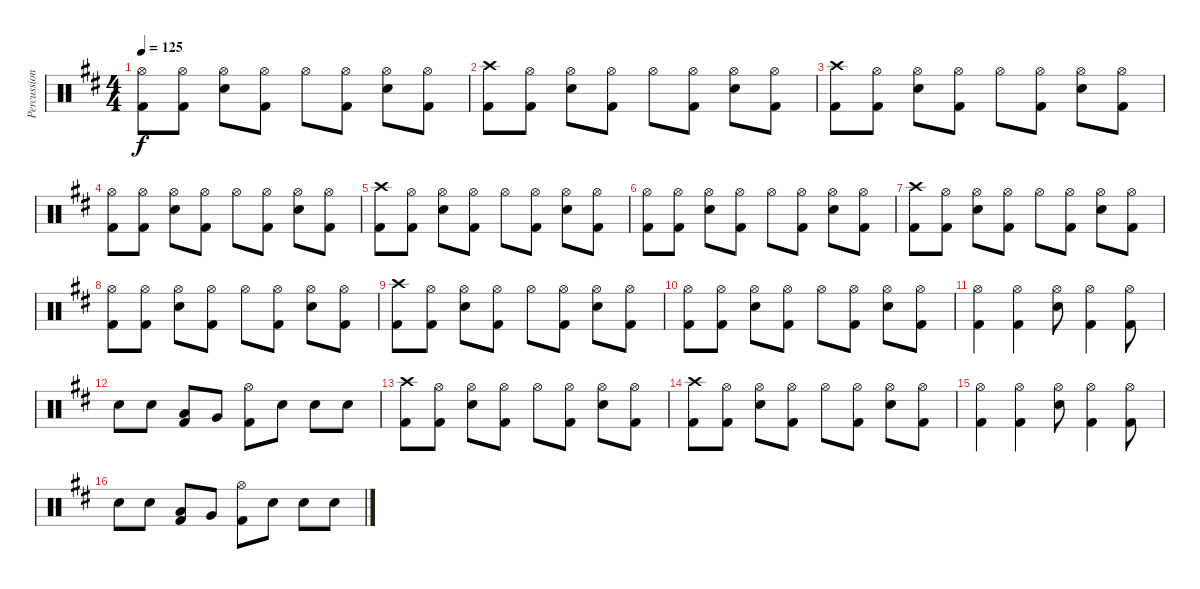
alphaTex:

\track ("Percussion" "Percussion") {instrument percussion}
\staff {score}
\articulation defaults
\ts (4 4)
\tempo 125
\clef neutral
\ks d
("Hi-Hat (open)" "Kick (hit) 2").8{dy f} ("Hi-Hat (open)" "Kick (hit) 2").8 ("Hi-Hat (open)" "Electric Snare (hit)").8 ("Hi-Hat (open)" "Kick (hit) 2").8 "Hi-Hat (open)".8 ("Hi-Hat (open)" "Kick (hit) 2").8 ("Hi-Hat (open)" "Electric Snare (hit)").8 ("Hi-Hat (open)" "Kick (hit) 2").8 |
("Crash high (hit)" "Kick (hit) 2").8 ("Hi-Hat (open)" "Kick (hit) 2").8 ("Hi-Hat (open)" "Electric Snare (hit)").8 ("Hi-Hat (open)" "Kick (hit) 2").8 "Hi-Hat (open)".8 ("Hi-Hat (open)" "Kick (hit) 2").8 ("Hi-Hat (open)" "Electric Snare (hit)").8 ("Hi-Hat (open)" "Kick (hit) 2").8 |
("Crash high (hit)" "Kick (hit) 2").8 ("Hi-Hat (open)" "Kick (hit) 2").8 ("Hi-Hat (open)" "Electric Snare (hit)").8 ("Hi-Hat (open)" "Kick (hit) 2").8 "Hi-Hat (open)".8 ("Hi-Hat (open)" "Kick (hit) 2").8 ("Hi-Hat (open)" "Electric Snare (hit)").8 ("Hi-Hat (open)" "Kick (hit) 2").8 |
("Hi-Hat (open)" "Kick (hit) 2").8 ("Hi-Hat (open)" "Kick (hit) 2").8 ("Hi-Hat (open)" "Electric Snare (hit)").8 ("Hi-Hat (open)" "Kick (hit) 2").8 "Hi-Hat (open)".8 ("Hi-Hat (open)" "Kick (hit) 2").8 ("Hi-Hat (open)" "Electric Snare (hit)").8 ("Hi-Hat (open)" "Kick (hit) 2").8 |
("Crash high (hit)" "Kick (hit) 2").8 ("Hi-Hat (open)" "Kick (hit) 2").8 ("Hi-Hat (open)" "Electric Snare (hit)").8 ("Hi-Hat (open)" "Kick (hit) 2").8 "Hi-Hat (open)".8 ("Hi-Hat (open)" "Kick (hit) 2").8 ("Hi-Hat (open)" "Electric Snare (hit)").8 ("Hi-Hat (open)" "Kick (hit) 2").8 |
("Hi-Hat (open)" "Kick (hit) 2").8 ("Hi-Hat (open)" "Kick (hit) 2").8 ("Hi-Hat (open)" "Electric Snare (hit)").8 ("Hi-Hat (open)" "Kick (hit) 2").8 "Hi-Hat (open)".8 ("Hi-Hat (open)" "Kick (hit) 2").8 ("Hi-Hat (open)" "Electric Snare (hit)").8 ("Hi-Hat (open)" "Kick (hit) 2").8 |
("Crash high (hit)" "Kick (hit) 2").8 ("Hi-Hat (open)" "Kick (hit) 2").8 ("Hi-Hat (open)" "Electric Snare (hit)").8 ("Hi-Hat (open)" "Kick (hit) 2").8 "Hi-Hat (open)".8 ("Hi-Hat (open)" "Kick (hit) 2").8 ("Hi-Hat (open)" "Electric Snare (hit)").8 ("Hi-Hat (open)" "Kick (hit) 2").8 |
("Hi-Hat (open)" "Kick (hit) 2").8 ("Hi-Hat (open)" "Kick (hit) 2").8 ("Hi-Hat (open)" "Electric Snare (hit)").8 ("Hi-Hat (open)" "Kick (hit) 2").8 "Hi-Hat (open)".8 ("Hi-Hat (open)" "Kick (hit) 2").8 ("Hi-Hat (open)" "Electric Snare (hit)").8 ("Hi-Hat (open)" "Kick (hit) 2").8 |
("Crash high (hit)" "Kick (hit) 2").8 ("Hi-Hat (open)" "Kick (hit) 2").8 ("Hi-Hat (open)" "Electric Snare (hit)").8 ("Hi-Hat (open)" "Kick (hit) 2").8 "Hi-Hat (open)".8 ("Hi-Hat (open)" "Kick (hit) 2").8 ("Hi-Hat (open)" "Electric Snare (hit)").8 ("Hi-Hat (open)" "Kick (hit) 2").8 |
("Hi-Hat (open)" "Kick (hit) 2").8 ("Hi-Hat (open)" "Kick (hit) 2").8 ("Hi-Hat (open)" "Electric Snare (hit)").8 ("Hi-Hat (open)" "Kick (hit) 2").8 "Hi-Hat (open)".8 ("Hi-Hat (open)" "Kick (hit) 2").8 ("Hi-Hat (open)" "Electric Snare (hit)").8 ("Hi-Hat (open)" "Kick (hit) 2").8 |
("Hi-Hat (open)" "Kick (hit) 2").4 ("Hi-Hat (open)" "Kick (hit) 2").4 ("Hi-Hat (open)" "Electric Snare (hit)").8 ("Hi-Hat (open)" "Kick (hit) 2").4 ("Hi-Hat (open)" "Kick (hit) 2").8 |
"Electric Snare (hit)".8 "Electric Snare (hit)".8 ("Low Tom (hit)" "Kick (hit) 2").8 "Very Low Tom (hit)".8 ("Hi-Hat (open)" "Kick (hit) 2").8 "Electric Snare (hit)".8 "Electric Snare (hit)".8 "Electric Snare (hit)".8 |
("Crash high (hit)" "Kick (hit) 2").8 ("Hi-Hat (open)" "Kick (hit) 2").8 ("Hi-Hat (open)" "Electric Snare (hit)").8 ("Hi-Hat (open)" "Kick (hit) 2").8 "Hi-Hat (open)".8 ("Hi-Hat (open)" "Kick (hit) 2").8 ("Hi-Hat (open)" "Electric Snare (hit)").8 ("Hi-Hat (open)" "Kick (hit) 2").8 |
("Crash high (hit)" "Kick (hit) 2").8 ("Hi-Hat (open)" "Kick (hit) 2").8 ("Hi-Hat (open)" "Electric Snare (hit)").8 ("Hi-Hat (open)" "Kick (hit) 2").8 "Hi-Hat (open)".8 ("Hi-Hat (open)" "Kick (hit) 2").8 ("Hi-Hat (open)" "Electric Snare (hit)").8 ("Hi-Hat (open)" "Kick (hit) 2").8 |
("Hi-Hat (open)" "Kick (hit) 2").4 ("Hi-Hat (open)" "Kick (hit) 2").4 ("Hi-Hat (open)" "Electric Snare (hit)").8 ("Hi-Hat (open)" "Kick (hit) 2").4 ("Hi-Hat (open)" "Kick (hit) 2").8 |
"Electric Snare (hit)".8 "Electric Snare (hit)".8 ("Low Tom (hit)" "Kick (hit) 2").8 "Very Low Tom (hit)".8 ("Hi-Hat (open)" "Kick (hit) 2").8 "Electric Snare (hit)".8 "Electric Snare (hit)".8 "Electric Snare (hit)".8
